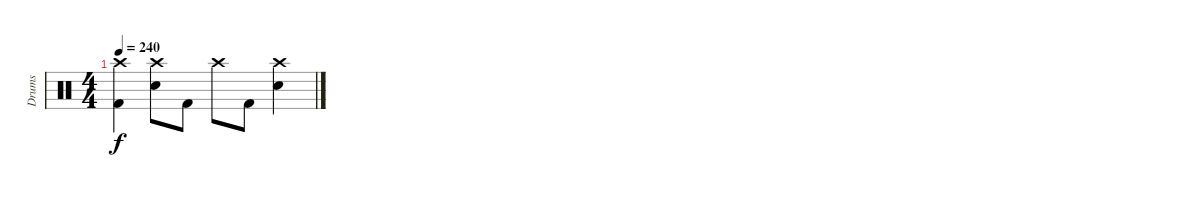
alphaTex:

\track ("Drums" "Drums") {instrument percussion}
\staff {score}
\articulation defaults
\ts (4 4)
\tempo 240
\clef neutral
\ks c
("Crash high (hit)" "Kick (hit) 2").4{dy f} ("Crash high (hit)" "Snare (hit) 2").8 "Kick (hit) 2".8 "Crash high (hit)".8 "Kick (hit) 2".8 ("Crash high (hit)" "Snare (hit) 2").4
